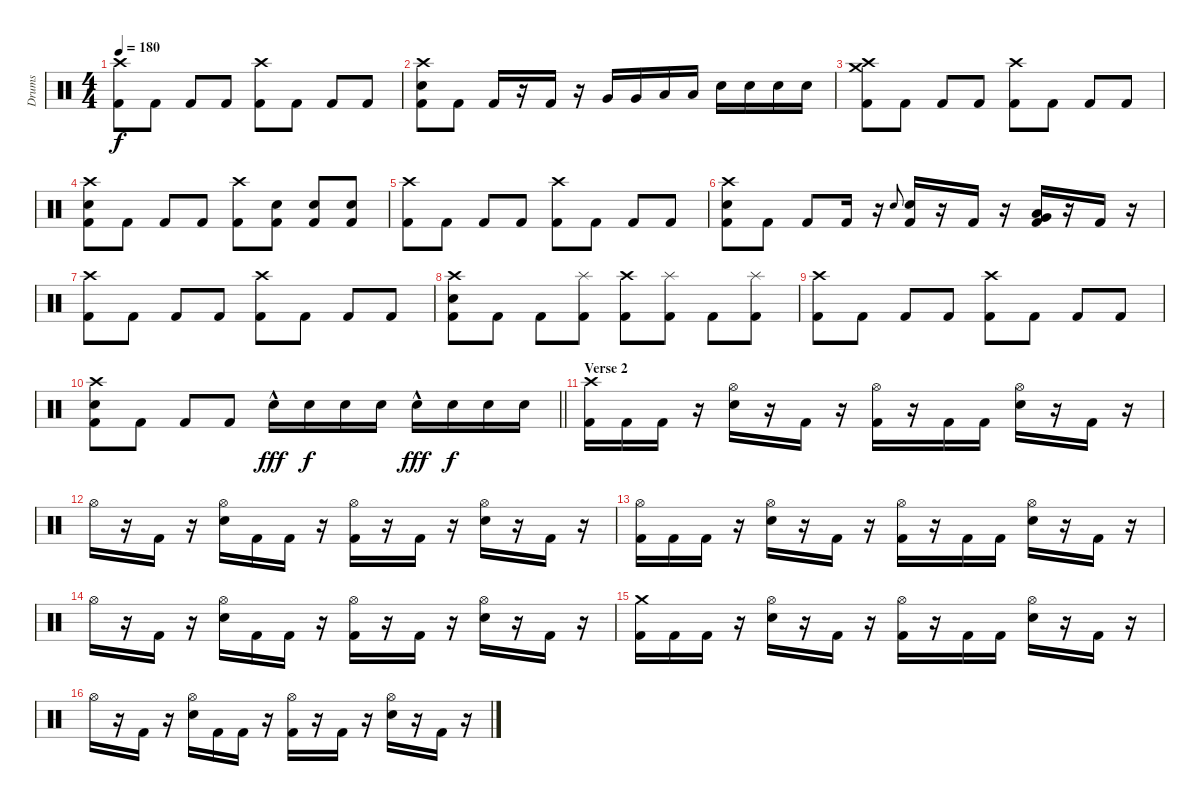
\track ("Drums" "Drums") {instrument percussion}
\staff {score}
\articulation defaults
\ts (4 4)
\tempo 180
\clef neutral
\ks c
("Crash high (hit)" "Kick (hit) 2").8{dy f} "Kick (hit) 2".8 "Kick (hit) 2".8 "Kick (hit) 2".8 ("Crash high (hit)" "Kick (hit) 2").8 "Kick (hit) 2".8 "Kick (hit) 2".8 "Kick (hit) 2".8 |
("Crash high (hit)" "Electric Snare (hit)" "Kick (hit) 2").8 "Kick (hit) 2".8 "Kick (hit) 2".16 r.16 "Kick (hit) 2".16 r.16 "Very Low Tom (hit)".16 "Very Low Tom (hit)".16 "Low Floor Tom (hit)".16 "Low Floor Tom (hit)".16 "Electric Snare (hit)".16 "Electric Snare (hit)".16 "Electric Snare (hit)".16 "Electric Snare (hit)".16 |
("Crash high (hit)" "Crash medium (hit)" "Kick (hit) 2").8 "Kick (hit) 2".8 "Kick (hit) 2".8 "Kick (hit) 2".8 ("Crash high (hit)" "Kick (hit) 2").8 "Kick (hit) 2".8 "Kick (hit) 2".8 "Kick (hit) 2".8 |
("Crash high (hit)" "Electric Snare (hit)" "Kick (hit) 2").8 "Kick (hit) 2".8 "Kick (hit) 2".8 "Kick (hit) 2".8 ("Crash high (hit)" "Kick (hit) 2").8 ("Electric Snare (hit)" "Kick (hit) 2").8 ("Electric Snare (hit)" "Kick (hit) 2").8 ("Electric Snare (hit)" "Kick (hit) 2").8 |
("Crash high (hit)" "Kick (hit) 2").8 "Kick (hit) 2".8 "Kick (hit) 2".8 "Kick (hit) 2".8 ("Crash high (hit)" "Kick (hit) 2").8 "Kick (hit) 2".8 "Kick (hit) 2".8 "Kick (hit) 2".8 |
("Crash high (hit)" "Electric Snare (hit)" "Kick (hit) 2").8 "Kick (hit) 2".8 "Kick (hit) 2".8 "Kick (hit) 2".16 r.16 "Electric Snare (hit)".8{gr onbeat} ("Kick (hit) 2" "Electric Snare (hit)").16 r.16 "Kick (hit) 2".16 r.16 ("Very Low Tom (hit)" "Low Floor Tom (hit)" "Kick (hit) 2").16 r.16 "Kick (hit) 2".16 r.16 |
("Crash high (hit)" "Kick (hit) 2").8 "Kick (hit) 2".8 "Kick (hit) 2".8 "Kick (hit) 2".8 ("Crash high (hit)" "Kick (hit) 2").8 "Kick (hit) 2".8 "Kick (hit) 2".8 "Kick (hit) 2".8 |
("Crash high (hit)" "Electric Snare (hit)" "Kick (hit) 2").8 "Kick (hit) 2".8 "Kick (hit) 2".8 ("Splash (hit)" "Kick (hit) 2").8 ("Crash high (hit)" "Kick (hit) 2").8 ("Splash (hit)" "Kick (hit) 2").8 "Kick (hit) 2".8 ("Splash (hit)" "Kick (hit) 2").8 |
("Crash high (hit)" "Kick (hit) 2").8 "Kick (hit) 2".8 "Kick (hit) 2".8 "Kick (hit) 2".8 ("Crash high (hit)" "Kick (hit) 2").8 "Kick (hit) 2".8 "Kick (hit) 2".8 "Kick (hit) 2".8 |
\barLineRight lightlight
("Crash high (hit)" "Electric Snare (hit)" "Kick (hit) 2").8 "Kick (hit) 2".8 "Kick (hit) 2".8 "Kick (hit) 2".8 "Electric Snare (hit)"{hac}.16{dy fff} "Electric Snare (hit)".16{dy f} "Electric Snare (hit)".16 "Electric Snare (hit)".16 "Electric Snare (hit)"{hac}.16{dy fff} "Electric Snare (hit)".16{dy f} "Electric Snare (hit)".16 "Electric Snare (hit)".16 |
\section ("" "Verse 2")
("Crash high (hit)" "Kick (hit) 2").16 "Kick (hit) 2".16 "Kick (hit) 2".16 r.16 ("Hi-Hat (open)" "Electric Snare (hit)").16 r.16 "Kick (hit) 2".16 r.16 ("Hi-Hat (open)" "Kick (hit) 2").16 r.16 "Kick (hit) 2".16 "Kick (hit) 2".16 ("Hi-Hat (open)" "Electric Snare (hit)").16 r.16 "Kick (hit) 2".16 r.16 |
"Hi-Hat (open)".16 r.16 "Kick (hit) 2".16 r.16 ("Hi-Hat (open)" "Electric Snare (hit)").16 "Kick (hit) 2".16 "Kick (hit) 2".16 r.16 ("Hi-Hat (open)" "Kick (hit) 2").16 r.16 "Kick (hit) 2".16 r.16 ("Hi-Hat (open)" "Electric Snare (hit)").16 r.16 "Kick (hit) 2".16 r.16 |
("Hi-Hat (open)" "Kick (hit) 2").16 "Kick (hit) 2".16 "Kick (hit) 2".16 r.16 ("Hi-Hat (open)" "Electric Snare (hit)").16 r.16 "Kick (hit) 2".16 r.16 ("Hi-Hat (open)" "Kick (hit) 2").16 r.16 "Kick (hit) 2".16 "Kick (hit) 2".16 ("Hi-Hat (open)" "Electric Snare (hit)").16 r.16 "Kick (hit) 2".16 r.16 |
"Hi-Hat (open)".16 r.16 "Kick (hit) 2".16 r.16 ("Hi-Hat (open)" "Electric Snare (hit)").16 "Kick (hit) 2".16 "Kick (hit) 2".16 r.16 ("Hi-Hat (open)" "Kick (hit) 2").16 r.16 "Kick (hit) 2".16 r.16 ("Hi-Hat (open)" "Electric Snare (hit)").16 r.16 "Kick (hit) 2".16 r.16 |
("Crash medium (hit)" "Kick (hit) 2").16 "Kick (hit) 2".16 "Kick (hit) 2".16 r.16 ("Hi-Hat (open)" "Electric Snare (hit)").16 r.16 "Kick (hit) 2".16 r.16 ("Hi-Hat (open)" "Kick (hit) 2").16 r.16 "Kick (hit) 2".16 "Kick (hit) 2".16 ("Hi-Hat (open)" "Electric Snare (hit)").16 r.16 "Kick (hit) 2".16 r.16 |
"Hi-Hat (open)".16 r.16 "Kick (hit) 2".16 r.16 ("Hi-Hat (open)" "Electric Snare (hit)").16 "Kick (hit) 2".16 "Kick (hit) 2".16 r.16 ("Hi-Hat (open)" "Kick (hit) 2").16 r.16 "Kick (hit) 2".16 r.16 ("Hi-Hat (open)" "Electric Snare (hit)").16 r.16 "Kick (hit) 2".16 r.16
